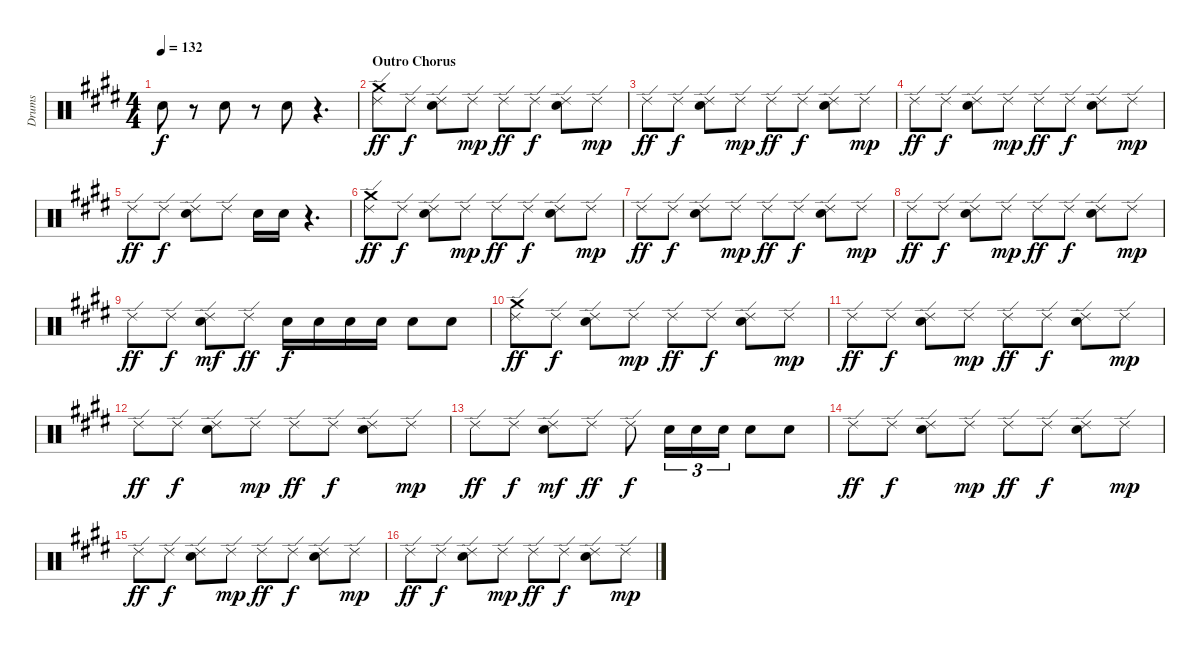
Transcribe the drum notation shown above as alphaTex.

\track ("Drums" "Drums") {instrument percussion}
\staff {score}
\articulation defaults
\ts (4 4)
\tempo 132
\clef neutral
\ks e "Electric Snare (hit)".8{dy f}
r.8 "Electric Snare (hit)".8 r.8 "Electric Snare (hit)".8 r.4{d} |
\section ("" "Outro Chorus")
("Crash medium (hit)" "Ride (edge) 2").8{dy ff} "Ride (edge) 2".8{dy f} ("Electric Snare (hit)" "Ride (edge) 2").8 "Ride (edge) 2".8{dy mp} "Ride (edge) 2".8{dy ff} "Ride (edge) 2".8{dy f} ("Electric Snare (hit)" "Ride (edge) 2").8 "Ride (edge) 2".8{dy mp} |
"Ride (edge) 2".8{dy ff} "Ride (edge) 2".8{dy f} ("Electric Snare (hit)" "Ride (edge) 2").8 "Ride (edge) 2".8{dy mp} "Ride (edge) 2".8{dy ff} "Ride (edge) 2".8{dy f} ("Electric Snare (hit)" "Ride (edge) 2").8 "Ride (edge) 2".8{dy mp} |
"Ride (edge) 2".8{dy ff} "Ride (edge) 2".8{dy f} ("Electric Snare (hit)" "Ride (edge) 2").8 "Ride (edge) 2".8{dy mp} "Ride (edge) 2".8{dy ff} "Ride (edge) 2".8{dy f} ("Electric Snare (hit)" "Ride (edge) 2").8 "Ride (edge) 2".8{dy mp} |
"Ride (edge) 2".8{dy ff} "Ride (edge) 2".8{dy f} ("Electric Snare (hit)" "Ride (edge) 2").8 "Ride (edge) 2".8 "Electric Snare (hit)".16 "Electric Snare (hit)".16 r.4{d} |
("Crash medium (hit)" "Ride (edge) 2").8{dy ff} "Ride (edge) 2".8{dy f} ("Electric Snare (hit)" "Ride (edge) 2").8 "Ride (edge) 2".8{dy mp} "Ride (edge) 2".8{dy ff} "Ride (edge) 2".8{dy f} ("Electric Snare (hit)" "Ride (edge) 2").8 "Ride (edge) 2".8{dy mp} |
"Ride (edge) 2".8{dy ff} "Ride (edge) 2".8{dy f} ("Electric Snare (hit)" "Ride (edge) 2").8 "Ride (edge) 2".8{dy mp} "Ride (edge) 2".8{dy ff} "Ride (edge) 2".8{dy f} ("Electric Snare (hit)" "Ride (edge) 2").8 "Ride (edge) 2".8{dy mp} |
"Ride (edge) 2".8{dy ff} "Ride (edge) 2".8{dy f} ("Electric Snare (hit)" "Ride (edge) 2").8 "Ride (edge) 2".8{dy mp} "Ride (edge) 2".8{dy ff} "Ride (edge) 2".8{dy f} ("Electric Snare (hit)" "Ride (edge) 2").8 "Ride (edge) 2".8{dy mp} |
"Ride (edge) 2".8{dy ff} "Ride (edge) 2".8{dy f} ("Electric Snare (hit)" "Ride (edge) 2").8{dy mf} "Ride (edge) 2".8{dy ff} "Electric Snare (hit)".16{dy f} "Electric Snare (hit)".16 "Electric Snare (hit)".16 "Electric Snare (hit)".16 "Electric Snare (hit)".8 "Electric Snare (hit)".8 |
("Crash medium (hit)" "Ride (edge) 2").8{dy ff} "Ride (edge) 2".8{dy f} ("Electric Snare (hit)" "Ride (edge) 2").8 "Ride (edge) 2".8{dy mp} "Ride (edge) 2".8{dy ff} "Ride (edge) 2".8{dy f} ("Electric Snare (hit)" "Ride (edge) 2").8 "Ride (edge) 2".8{dy mp} |
"Ride (edge) 2".8{dy ff} "Ride (edge) 2".8{dy f} ("Electric Snare (hit)" "Ride (edge) 2").8 "Ride (edge) 2".8{dy mp} "Ride (edge) 2".8{dy ff} "Ride (edge) 2".8{dy f} ("Electric Snare (hit)" "Ride (edge) 2").8 "Ride (edge) 2".8{dy mp} |
"Ride (edge) 2".8{dy ff} "Ride (edge) 2".8{dy f} ("Electric Snare (hit)" "Ride (edge) 2").8 "Ride (edge) 2".8{dy mp} "Ride (edge) 2".8{dy ff} "Ride (edge) 2".8{dy f} ("Electric Snare (hit)" "Ride (edge) 2").8 "Ride (edge) 2".8{dy mp} |
"Ride (edge) 2".8{dy ff} "Ride (edge) 2".8{dy f} ("Electric Snare (hit)" "Ride (edge) 2").8{dy mf} "Ride (edge) 2".8{dy ff} "Ride (edge) 2".8{dy f} "Electric Snare (hit)".16{tu (3 2)} "Electric Snare (hit)".16{tu (3 2)} "Electric Snare (hit)".16{tu (3 2)} "Electric Snare (hit)".8 "Electric Snare (hit)".8 |
"Ride (edge) 2".8{dy ff} "Ride (edge) 2".8{dy f} ("Electric Snare (hit)" "Ride (edge) 2").8 "Ride (edge) 2".8{dy mp} "Ride (edge) 2".8{dy ff} "Ride (edge) 2".8{dy f} ("Electric Snare (hit)" "Ride (edge) 2").8 "Ride (edge) 2".8{dy mp} |
"Ride (edge) 2".8{dy ff} "Ride (edge) 2".8{dy f} ("Electric Snare (hit)" "Ride (edge) 2").8 "Ride (edge) 2".8{dy mp} "Ride (edge) 2".8{dy ff} "Ride (edge) 2".8{dy f} ("Electric Snare (hit)" "Ride (edge) 2").8 "Ride (edge) 2".8{dy mp} |
"Ride (edge) 2".8{dy ff} "Ride (edge) 2".8{dy f} ("Electric Snare (hit)" "Ride (edge) 2").8 "Ride (edge) 2".8{dy mp} "Ride (edge) 2".8{dy ff} "Ride (edge) 2".8{dy f} ("Electric Snare (hit)" "Ride (edge) 2").8 "Ride (edge) 2".8{dy mp}
